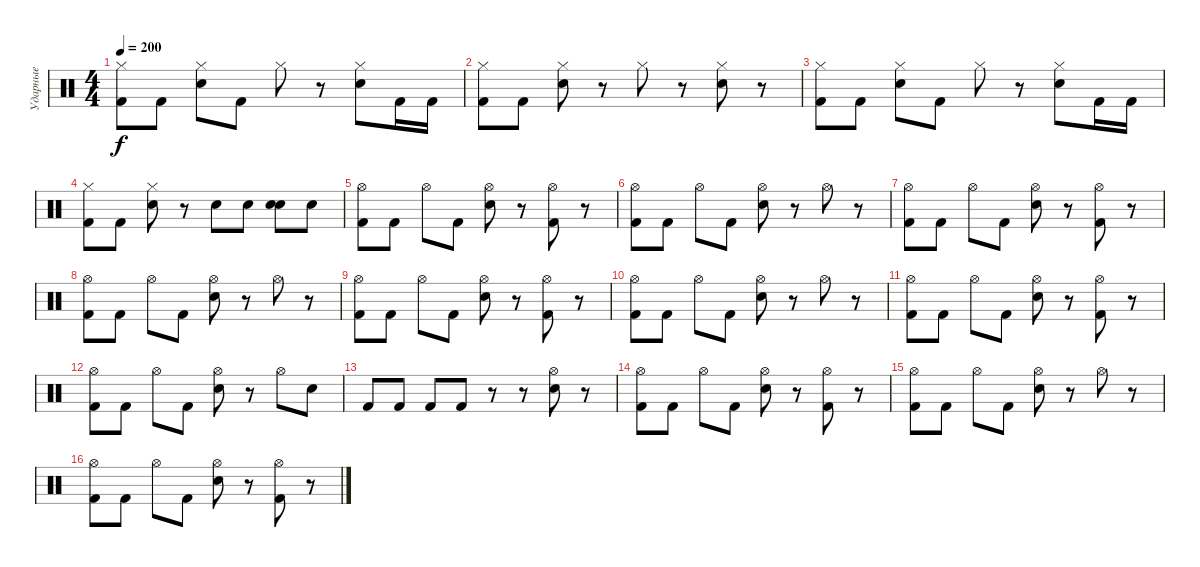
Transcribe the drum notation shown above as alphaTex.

\track ("Ударные" "Ударные") {instrument percussion}
\staff {score}
\articulation defaults
\ts (4 4)
\tempo 200
\clef neutral
\ks c
("Hi-Hat (closed)" "Kick (hit) 2").8{dy f} "Kick (hit) 2".8 ("Hi-Hat (closed)" "Electric Snare (hit)").8 "Kick (hit) 2".8 "Hi-Hat (closed)".8 r.8 ("Hi-Hat (closed)" "Electric Snare (hit)").8 "Kick (hit) 2".16 "Kick (hit) 2".16 |
("Hi-Hat (closed)" "Kick (hit) 2").8 "Kick (hit) 2".8 ("Hi-Hat (closed)" "Electric Snare (hit)").8 r.8 "Hi-Hat (closed)".8 r.8 ("Hi-Hat (closed)" "Electric Snare (hit)").8 r.8 |
("Hi-Hat (closed)" "Kick (hit) 2").8 "Kick (hit) 2".8 ("Hi-Hat (closed)" "Electric Snare (hit)").8 "Kick (hit) 2".8 "Hi-Hat (closed)".8 r.8 ("Hi-Hat (closed)" "Electric Snare (hit)").8 "Kick (hit) 2".16 "Kick (hit) 2".16 |
("Hi-Hat (closed)" "Kick (hit) 2").8 "Kick (hit) 2".8 ("Hi-Hat (closed)" "Electric Snare (hit)").8 r.8 "Electric Snare (hit)".8 "Electric Snare (hit)".8 ("Electric Snare (hit)" "Electric Snare (hit)").8 "Electric Snare (hit)".8 |
("Hi-Hat (open)" "Kick (hit) 2").8 "Kick (hit) 2".8 "Hi-Hat (open)".8 "Kick (hit) 2".8 ("Hi-Hat (open)" "Electric Snare (hit)").8 r.8 ("Hi-Hat (open)" "Kick (hit) 2").8 r.8 |
("Hi-Hat (open)" "Kick (hit) 2").8 "Kick (hit) 2".8 "Hi-Hat (open)".8 "Kick (hit) 2".8 ("Hi-Hat (open)" "Electric Snare (hit)").8 r.8 "Hi-Hat (open)".8 r.8 |
("Hi-Hat (open)" "Kick (hit) 2").8 "Kick (hit) 2".8 "Hi-Hat (open)".8 "Kick (hit) 2".8 ("Hi-Hat (open)" "Electric Snare (hit)").8 r.8 ("Hi-Hat (open)" "Kick (hit) 2").8 r.8 |
("Hi-Hat (open)" "Kick (hit) 2").8 "Kick (hit) 2".8 "Hi-Hat (open)".8 "Kick (hit) 2".8 ("Hi-Hat (open)" "Electric Snare (hit)").8 r.8 "Hi-Hat (open)".8 r.8 |
("Hi-Hat (open)" "Kick (hit) 2").8 "Kick (hit) 2".8 "Hi-Hat (open)".8 "Kick (hit) 2".8 ("Hi-Hat (open)" "Electric Snare (hit)").8 r.8 ("Hi-Hat (open)" "Kick (hit) 2").8 r.8 |
("Hi-Hat (open)" "Kick (hit) 2").8 "Kick (hit) 2".8 "Hi-Hat (open)".8 "Kick (hit) 2".8 ("Hi-Hat (open)" "Electric Snare (hit)").8 r.8 "Hi-Hat (open)".8 r.8 |
("Hi-Hat (open)" "Kick (hit) 2").8 "Kick (hit) 2".8 "Hi-Hat (open)".8 "Kick (hit) 2".8 ("Hi-Hat (open)" "Electric Snare (hit)").8 r.8 ("Hi-Hat (open)" "Kick (hit) 2").8 r.8 |
("Hi-Hat (open)" "Kick (hit) 2").8 "Kick (hit) 2".8 "Hi-Hat (open)".8 "Kick (hit) 2".8 ("Hi-Hat (open)" "Electric Snare (hit)").8 r.8 "Hi-Hat (open)".8 "Electric Snare (hit)".8 |
"Kick (hit) 2".8 "Kick (hit) 2".8 "Kick (hit) 2".8 "Kick (hit) 2".8 r.8 r.8 ("Hi-Hat (open)" "Electric Snare (hit)").8 r.8 |
("Hi-Hat (open)" "Kick (hit) 2").8 "Kick (hit) 2".8 "Hi-Hat (open)".8 "Kick (hit) 2".8 ("Hi-Hat (open)" "Electric Snare (hit)").8 r.8 ("Hi-Hat (open)" "Kick (hit) 2").8 r.8 |
("Hi-Hat (open)" "Kick (hit) 2").8 "Kick (hit) 2".8 "Hi-Hat (open)".8 "Kick (hit) 2".8 ("Hi-Hat (open)" "Electric Snare (hit)").8 r.8 "Hi-Hat (open)".8 r.8 |
("Hi-Hat (open)" "Kick (hit) 2").8 "Kick (hit) 2".8 "Hi-Hat (open)".8 "Kick (hit) 2".8 ("Hi-Hat (open)" "Electric Snare (hit)").8 r.8 ("Hi-Hat (open)" "Kick (hit) 2").8 r.8
